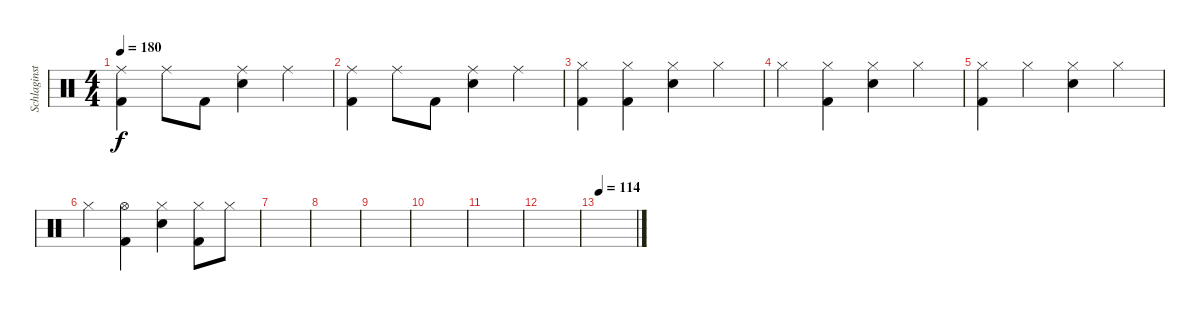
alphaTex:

\track ("Schlaginstrumente - Auswahl" "Schlaginst") {instrument percussion}
\staff {score}
\articulation defaults
\ts (4 4)
\tempo 180
\clef neutral
\ks c
("Ride (middle)" "Kick (hit) 2").4{dy f} "Ride (middle)".8 "Kick (hit) 2".8 ("Ride (middle)" "Snare (hit) 2").4 "Ride (middle)".4 |
("Ride (middle)" "Kick (hit) 2").4 "Ride (middle)".8 "Kick (hit) 2".8 ("Ride (middle)" "Snare (hit) 2").4 "Ride (middle)".4 |
("Hi-Hat (closed)" "Kick (hit) 2").4 ("Hi-Hat (closed)" "Kick (hit) 2").4 ("Hi-Hat (closed)" "Snare (hit) 2").4 "Hi-Hat (closed)".4 |
"Hi-Hat (closed)".4 ("Hi-Hat (closed)" "Kick (hit) 2").4 ("Hi-Hat (closed)" "Snare (hit) 2").4 "Hi-Hat (closed)".4 |
("Hi-Hat (closed)" "Kick (hit) 2").4 "Hi-Hat (closed)".4 ("Hi-Hat (closed)" "Snare (hit) 2").4 "Hi-Hat (closed)".4 |
"Hi-Hat (closed)".4 ("Hi-Hat (open)" "Kick (hit) 2").4 ("Hi-Hat (closed)" "Snare (hit) 2").4 ("Hi-Hat (closed)" "Kick (hit) 2").8 "Hi-Hat (closed)".8 |
|
|
|
|
|
|
\tempo 114
